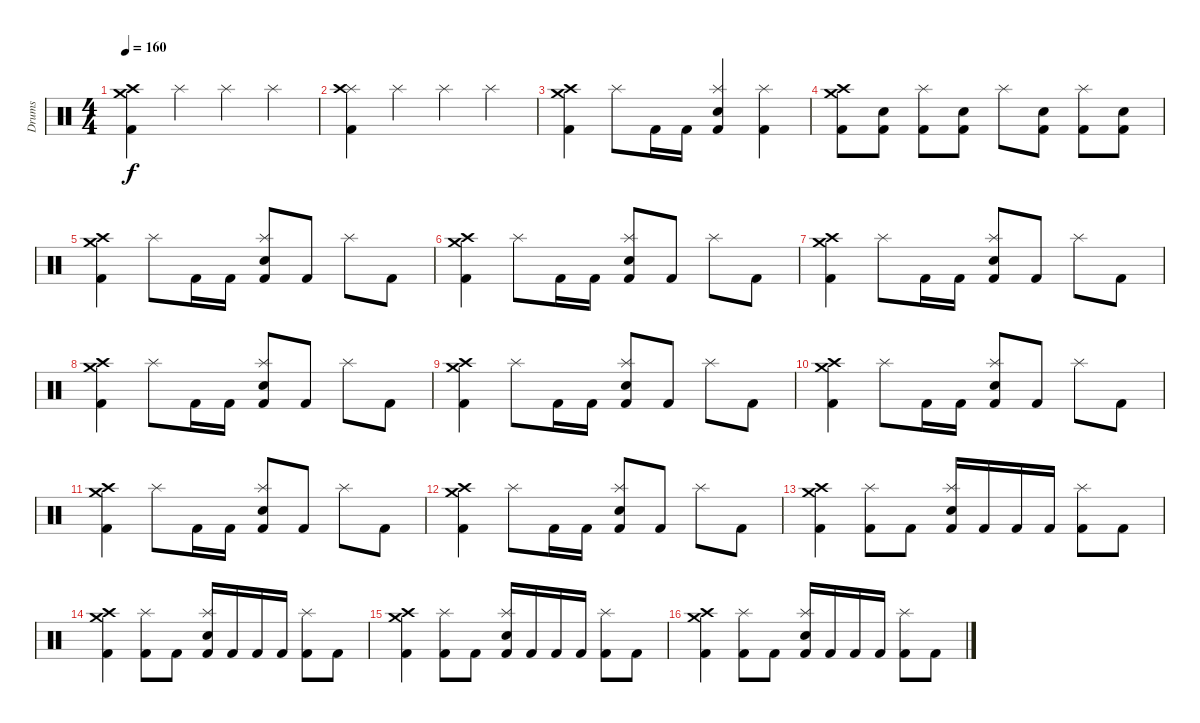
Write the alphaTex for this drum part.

\track ("Drums" "Drums") {instrument percussion}
\staff {score}
\articulation defaults
\ts (4 4)
\tempo 160
\clef neutral
\ks c
("Crash medium (hit)" "Crash high (hit)" "Kick (hit) 2").4{dy f} "Splash (hit)".4 "Splash (hit)".4 "Splash (hit)".4 |
("Splash (hit)" "Crash high (hit)" "Kick (hit) 2").4 "Splash (hit)".4 "Splash (hit)".4 "Splash (hit)".4 |
("Crash high (hit)" "Crash medium (hit)" "Kick (hit) 2").4 "Splash (hit)".8 "Kick (hit) 2".16 "Kick (hit) 2".16 ("Splash (hit)" "Snare (hit) 2" "Kick (hit) 2").4 ("Splash (hit)" "Kick (hit) 2").4 |
("Crash medium (hit)" "Crash high (hit)" "Kick (hit) 2").8 ("Snare (hit) 2" "Kick (hit) 2").8 ("Splash (hit)" "Kick (hit) 2").8 ("Snare (hit) 2" "Kick (hit) 2").8 "Splash (hit)".8 ("Snare (hit) 2" "Kick (hit) 2").8 ("Splash (hit)" "Kick (hit) 2").8 ("Snare (hit) 2" "Kick (hit) 2").8 |
("Crash medium (hit)" "Crash high (hit)" "Kick (hit) 2").4 "Splash (hit)".8 "Kick (hit) 2".16 "Kick (hit) 2".16 ("Splash (hit)" "Snare (hit) 2" "Kick (hit) 2").8 "Kick (hit) 2".8 "Splash (hit)".8 "Kick (hit) 2".8 |
("Crash medium (hit)" "Crash high (hit)" "Kick (hit) 2").4 "Splash (hit)".8 "Kick (hit) 2".16 "Kick (hit) 2".16 ("Splash (hit)" "Snare (hit) 2" "Kick (hit) 2").8 "Kick (hit) 2".8 "Splash (hit)".8 "Kick (hit) 2".8 |
("Crash medium (hit)" "Crash high (hit)" "Kick (hit) 2").4 "Splash (hit)".8 "Kick (hit) 2".16 "Kick (hit) 2".16 ("Splash (hit)" "Snare (hit) 2" "Kick (hit) 2").8 "Kick (hit) 2".8 "Splash (hit)".8 "Kick (hit) 2".8 |
("Crash medium (hit)" "Crash high (hit)" "Kick (hit) 2").4 "Splash (hit)".8 "Kick (hit) 2".16 "Kick (hit) 2".16 ("Splash (hit)" "Snare (hit) 2" "Kick (hit) 2").8 "Kick (hit) 2".8 "Splash (hit)".8 "Kick (hit) 2".8 |
("Crash medium (hit)" "Crash high (hit)" "Kick (hit) 2").4 "Splash (hit)".8 "Kick (hit) 2".16 "Kick (hit) 2".16 ("Splash (hit)" "Snare (hit) 2" "Kick (hit) 2").8 "Kick (hit) 2".8 "Splash (hit)".8 "Kick (hit) 2".8 |
("Crash medium (hit)" "Crash high (hit)" "Kick (hit) 2").4 "Splash (hit)".8 "Kick (hit) 2".16 "Kick (hit) 2".16 ("Splash (hit)" "Snare (hit) 2" "Kick (hit) 2").8 "Kick (hit) 2".8 "Splash (hit)".8 "Kick (hit) 2".8 |
("Crash medium (hit)" "Crash high (hit)" "Kick (hit) 2").4 "Splash (hit)".8 "Kick (hit) 2".16 "Kick (hit) 2".16 ("Splash (hit)" "Snare (hit) 2" "Kick (hit) 2").8 "Kick (hit) 2".8 "Splash (hit)".8 "Kick (hit) 2".8 |
("Crash medium (hit)" "Crash high (hit)" "Kick (hit) 2").4 "Splash (hit)".8 "Kick (hit) 2".16 "Kick (hit) 2".16 ("Splash (hit)" "Snare (hit) 2" "Kick (hit) 2").8 "Kick (hit) 2".8 "Splash (hit)".8 "Kick (hit) 2".8 |
("Crash high (hit)" "Crash medium (hit)" "Kick (hit) 2").4 ("Splash (hit)" "Kick (hit) 2").8 "Kick (hit) 2".8 ("Splash (hit)" "Snare (hit) 2" "Kick (hit) 2").16 "Kick (hit) 2".16 "Kick (hit) 2".16 "Kick (hit) 2".16 ("Splash (hit)" "Kick (hit) 2").8 "Kick (hit) 2".8 |
("Crash high (hit)" "Crash medium (hit)" "Kick (hit) 2").4 ("Splash (hit)" "Kick (hit) 2").8 "Kick (hit) 2".8 ("Splash (hit)" "Snare (hit) 2" "Kick (hit) 2").16 "Kick (hit) 2".16 "Kick (hit) 2".16 "Kick (hit) 2".16 ("Splash (hit)" "Kick (hit) 2").8 "Kick (hit) 2".8 |
("Crash high (hit)" "Crash medium (hit)" "Kick (hit) 2").4 ("Splash (hit)" "Kick (hit) 2").8 "Kick (hit) 2".8 ("Splash (hit)" "Snare (hit) 2" "Kick (hit) 2").16 "Kick (hit) 2".16 "Kick (hit) 2".16 "Kick (hit) 2".16 ("Splash (hit)" "Kick (hit) 2").8 "Kick (hit) 2".8 |
("Crash high (hit)" "Crash medium (hit)" "Kick (hit) 2").4 ("Splash (hit)" "Kick (hit) 2").8 "Kick (hit) 2".8 ("Splash (hit)" "Snare (hit) 2" "Kick (hit) 2").16 "Kick (hit) 2".16 "Kick (hit) 2".16 "Kick (hit) 2".16 ("Splash (hit)" "Kick (hit) 2").8 "Kick (hit) 2".8
